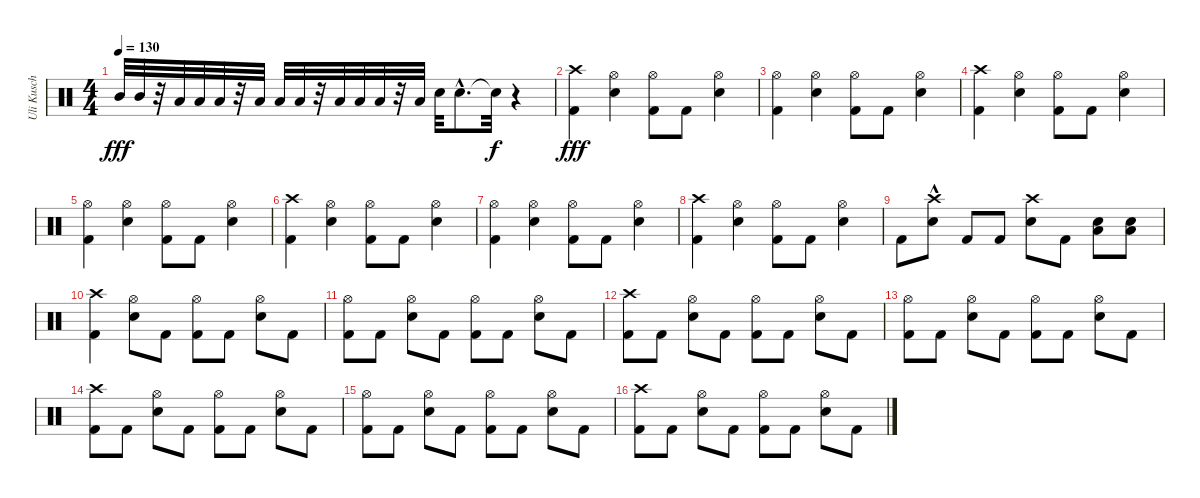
\track ("Uli Kusch" "Uli Kusch") {instrument percussion}
\staff {score}
\articulation defaults
\ts (4 4)
\tempo 130
\clef neutral
\ks c "Mid Tom (hit)".32{dy fff} "Mid Tom (hit)".32
r.32 "Low Tom (hit)".32 "Low Tom (hit)".32 "Low Tom (hit)".32 r.32 "Low Tom (hit)".32 "Low Floor Tom (hit)".32 "Low Floor Tom (hit)".32 r.32 "Low Tom (hit)".32 "Low Floor Tom (hit)".32 "Low Floor Tom (hit)".32 r.32 "Low Floor Tom (hit)".32 "Electric Snare (hit)".32 "Electric Snare (hit)"{hac}.8{d} "Snare (hit)"{t}.32{dy f} r.4 |
("Kick (hit) 2" "Crash high (hit)").4{dy fff} ("Electric Snare (hit)" "Hi-Hat (open)").4 ("Kick (hit) 2" "Hi-Hat (open)").8 "Kick (hit) 2".8 ("Electric Snare (hit)" "Hi-Hat (open)").4 |
("Hi-Hat (open)" "Kick (hit) 2").4 ("Electric Snare (hit)" "Hi-Hat (open)").4 ("Kick (hit) 2" "Hi-Hat (open)").8 "Kick (hit) 2".8 ("Electric Snare (hit)" "Hi-Hat (open)").4 |
("Kick (hit) 2" "Crash high (hit)").4 ("Electric Snare (hit)" "Hi-Hat (open)").4 ("Kick (hit) 2" "Hi-Hat (open)").8 "Kick (hit) 2".8 ("Electric Snare (hit)" "Hi-Hat (open)").4 |
("Hi-Hat (open)" "Kick (hit) 2").4 ("Electric Snare (hit)" "Hi-Hat (open)").4 ("Kick (hit) 2" "Hi-Hat (open)").8 "Kick (hit) 2".8 ("Electric Snare (hit)" "Hi-Hat (open)").4 |
("Kick (hit) 2" "Crash high (hit)").4 ("Electric Snare (hit)" "Hi-Hat (open)").4 ("Kick (hit) 2" "Hi-Hat (open)").8 "Kick (hit) 2".8 ("Electric Snare (hit)" "Hi-Hat (open)").4 |
("Hi-Hat (open)" "Kick (hit) 2").4 ("Electric Snare (hit)" "Hi-Hat (open)").4 ("Kick (hit) 2" "Hi-Hat (open)").8 "Kick (hit) 2".8 ("Electric Snare (hit)" "Hi-Hat (open)").4 |
("Kick (hit) 2" "Crash high (hit)").4 ("Electric Snare (hit)" "Hi-Hat (open)").4 ("Kick (hit) 2" "Hi-Hat (open)").8 "Kick (hit) 2".8 ("Electric Snare (hit)" "Hi-Hat (open)").4 |
"Kick (hit) 2".8 ("Electric Snare (hit)"{hac} "Crash high (hit)"{hac}).8 "Kick (hit) 2".8 "Kick (hit) 2".8 ("Electric Snare (hit)" "Crash high (hit)").8 "Kick (hit) 2".8 ("Electric Snare (hit)" "Low Floor Tom (hit)").8 ("Electric Snare (hit)" "Low Floor Tom (hit)").8 |
("Kick (hit) 2" "Crash high (hit)").4 ("Electric Snare (hit)" "Hi-Hat (open)").8 "Kick (hit) 2".8 ("Kick (hit) 2" "Hi-Hat (open)").8 "Kick (hit) 2".8 ("Electric Snare (hit)" "Hi-Hat (open)").8 "Kick (hit) 2".8 |
("Kick (hit) 2" "Hi-Hat (open)").8 "Kick (hit) 2".8 ("Electric Snare (hit)" "Hi-Hat (open)").8 "Kick (hit) 2".8 ("Kick (hit) 2" "Hi-Hat (open)").8 "Kick (hit) 2".8 ("Electric Snare (hit)" "Hi-Hat (open)").8 "Kick (hit) 2".8 |
("Crash high (hit)" "Kick (hit) 2").8 "Kick (hit) 2".8 ("Electric Snare (hit)" "Hi-Hat (open)").8 "Kick (hit) 2".8 ("Kick (hit) 2" "Hi-Hat (open)").8 "Kick (hit) 2".8 ("Electric Snare (hit)" "Hi-Hat (open)").8 "Kick (hit) 2".8 |
("Kick (hit) 2" "Hi-Hat (open)").8 "Kick (hit) 2".8 ("Electric Snare (hit)" "Hi-Hat (open)").8 "Kick (hit) 2".8 ("Kick (hit) 2" "Hi-Hat (open)").8 "Kick (hit) 2".8 ("Electric Snare (hit)" "Hi-Hat (open)").8 "Kick (hit) 2".8 |
("Crash high (hit)" "Kick (hit) 2").8 "Kick (hit) 2".8 ("Electric Snare (hit)" "Hi-Hat (open)").8 "Kick (hit) 2".8 ("Kick (hit) 2" "Hi-Hat (open)").8 "Kick (hit) 2".8 ("Electric Snare (hit)" "Hi-Hat (open)").8 "Kick (hit) 2".8 |
("Kick (hit) 2" "Hi-Hat (open)").8 "Kick (hit) 2".8 ("Electric Snare (hit)" "Hi-Hat (open)").8 "Kick (hit) 2".8 ("Kick (hit) 2" "Hi-Hat (open)").8 "Kick (hit) 2".8 ("Electric Snare (hit)" "Hi-Hat (open)").8 "Kick (hit) 2".8 |
("Crash high (hit)" "Kick (hit) 2").8 "Kick (hit) 2".8 ("Electric Snare (hit)" "Hi-Hat (open)").8 "Kick (hit) 2".8 ("Kick (hit) 2" "Hi-Hat (open)").8 "Kick (hit) 2".8 ("Electric Snare (hit)" "Hi-Hat (open)").8 "Kick (hit) 2".8
